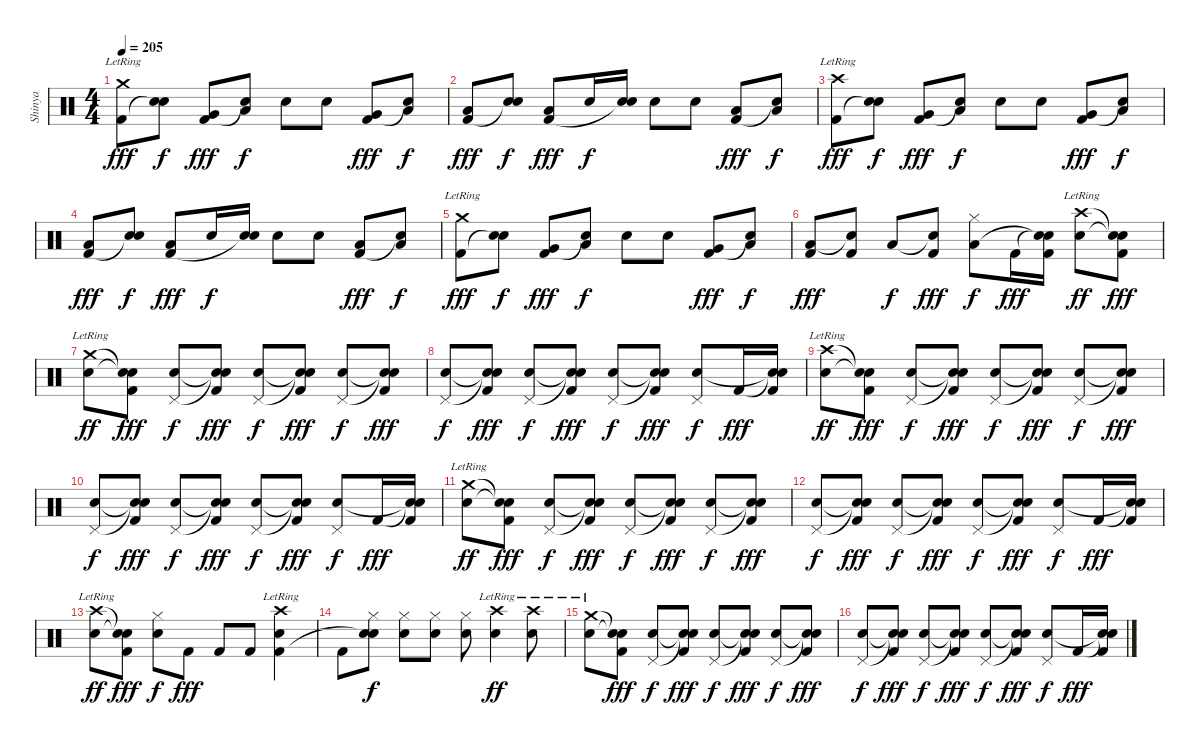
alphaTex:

\track ("Shinya" "Shinya") {instrument percussion}
\staff {score}
\articulation defaults
\ts (4 4)
\tempo 205
\clef neutral
\ks c
("Crash medium (hit)"{lr} "Kick (hit) 2").8{dy fff} ("Electric Snare (hit)" "Snare (hit)"{t}).8{dy f} ("Very Low Tom (hit)" "Kick (hit) 2").8{dy fff} ("Low Floor Tom (hit)" "Snare (hit)"{t}).8{dy f} "Electric Snare (hit)".8 "Electric Snare (hit)".8 ("Very Low Tom (hit)" "Kick (hit) 2").8{dy fff} ("Low Floor Tom (hit)" "Snare (hit)"{t}).8{dy f} |
("Low Floor Tom (hit)" "Kick (hit) 2").8{dy fff} ("Electric Snare (hit)" "Snare (hit)"{t}).8{dy f} ("Low Floor Tom (hit)" "Kick (hit) 2").8{dy fff} "Electric Snare (hit)".16{dy f} ("Electric Snare (hit)" "Snare (hit)"{t}).16 "Electric Snare (hit)".8 "Electric Snare (hit)".8 ("Low Floor Tom (hit)" "Kick (hit) 2").8{dy fff} ("Low Floor Tom (hit)" "Snare (hit)"{t}).8{dy f} |
("Crash high (hit)"{lr} "Kick (hit) 2").8{dy fff} ("Electric Snare (hit)" "Snare (hit)"{t}).8{dy f} ("Very Low Tom (hit)" "Kick (hit) 2").8{dy fff} ("Low Floor Tom (hit)" "Snare (hit)"{t}).8{dy f} "Electric Snare (hit)".8 "Electric Snare (hit)".8 ("Very Low Tom (hit)" "Kick (hit) 2").8{dy fff} ("Low Floor Tom (hit)" "Snare (hit)"{t}).8{dy f} |
("Low Floor Tom (hit)" "Kick (hit) 2").8{dy fff} ("Electric Snare (hit)" "Snare (hit)"{t}).8{dy f} ("Low Floor Tom (hit)" "Kick (hit) 2").8{dy fff} "Electric Snare (hit)".16{dy f} ("Electric Snare (hit)" "Snare (hit)"{t}).16 "Electric Snare (hit)".8 "Electric Snare (hit)".8 ("Low Floor Tom (hit)" "Kick (hit) 2").8{dy fff} ("Low Floor Tom (hit)" "Snare (hit)"{t}).8{dy f} |
("Crash medium (hit)"{lr} "Kick (hit) 2").8{dy fff} ("Electric Snare (hit)" "Snare (hit)"{t}).8{dy f} ("Very Low Tom (hit)" "Kick (hit) 2").8{dy fff} ("Low Floor Tom (hit)" "Snare (hit)"{t}).8{dy f} "Electric Snare (hit)".8 "Electric Snare (hit)".8 ("Very Low Tom (hit)" "Kick (hit) 2").8{dy fff} ("Low Floor Tom (hit)" "Snare (hit)"{t}).8{dy f} |
("Low Floor Tom (hit)" "Kick (hit) 2").8{dy fff} ("Snare (hit)"{t} "Kick (hit) 2").8 "Low Floor Tom (hit)".8{dy f} ("Snare (hit)"{t} "Kick (hit) 2").8{dy fff} ("Hi-Hat (closed)" "Low Floor Tom (hit)").8{dy f} "Kick (hit) 2".16{dy fff} ("Snare (hit)"{t} "Snare (hit)"{t} "Kick (hit) 2").16 ("Crash high (hit)"{lr} "Electric Snare (hit)").8{dy ff} ("Snare (hit)"{t} "Snare (hit)"{t} "Kick (hit) 2").8{dy fff} |
("Crash medium (hit)"{lr} "Electric Snare (hit)").8{dy ff} ("Snare (hit)"{t} "Snare (hit)"{t} "Kick (hit) 2").8{dy fff} ("Pedal Hi-Hat (hit)" "Electric Snare (hit)").8{dy f} ("Snare (hit)"{t} "Snare (hit)"{t} "Kick (hit) 2").8{dy fff} ("Pedal Hi-Hat (hit)" "Electric Snare (hit)").8{dy f} ("Snare (hit)"{t} "Snare (hit)"{t} "Kick (hit) 2").8{dy fff} ("Pedal Hi-Hat (hit)" "Electric Snare (hit)").8{dy f} ("Snare (hit)"{t} "Snare (hit)"{t} "Kick (hit) 2").8{dy fff} |
("Pedal Hi-Hat (hit)" "Electric Snare (hit)").8{dy f} ("Snare (hit)"{t} "Snare (hit)"{t} "Kick (hit) 2").8{dy fff} ("Pedal Hi-Hat (hit)" "Electric Snare (hit)").8{dy f} ("Snare (hit)"{t} "Snare (hit)"{t} "Kick (hit) 2").8{dy fff} ("Pedal Hi-Hat (hit)" "Electric Snare (hit)").8{dy f} ("Snare (hit)"{t} "Snare (hit)"{t} "Kick (hit) 2").8{dy fff} ("Pedal Hi-Hat (hit)" "Electric Snare (hit)").8{dy f} "Kick (hit) 2".16{dy fff} ("Snare (hit)"{t} "Snare (hit)"{t} "Kick (hit) 2").16 |
("Crash high (hit)"{lr} "Electric Snare (hit)").8{dy ff} ("Snare (hit)"{t} "Snare (hit)"{t} "Kick (hit) 2").8{dy fff} ("Pedal Hi-Hat (hit)" "Electric Snare (hit)").8{dy f} ("Snare (hit)"{t} "Snare (hit)"{t} "Kick (hit) 2").8{dy fff} ("Pedal Hi-Hat (hit)" "Electric Snare (hit)").8{dy f} ("Snare (hit)"{t} "Snare (hit)"{t} "Kick (hit) 2").8{dy fff} ("Pedal Hi-Hat (hit)" "Electric Snare (hit)").8{dy f} ("Snare (hit)"{t} "Snare (hit)"{t} "Kick (hit) 2").8{dy fff} |
("Pedal Hi-Hat (hit)" "Electric Snare (hit)").8{dy f} ("Snare (hit)"{t} "Snare (hit)"{t} "Kick (hit) 2").8{dy fff} ("Pedal Hi-Hat (hit)" "Electric Snare (hit)").8{dy f} ("Snare (hit)"{t} "Snare (hit)"{t} "Kick (hit) 2").8{dy fff} ("Pedal Hi-Hat (hit)" "Electric Snare (hit)").8{dy f} ("Snare (hit)"{t} "Snare (hit)"{t} "Kick (hit) 2").8{dy fff} ("Pedal Hi-Hat (hit)" "Electric Snare (hit)").8{dy f} "Kick (hit) 2".16{dy fff} ("Snare (hit)"{t} "Snare (hit)"{t} "Kick (hit) 2").16 |
("Crash medium (hit)"{lr} "Electric Snare (hit)").8{dy ff} ("Snare (hit)"{t} "Snare (hit)"{t} "Kick (hit) 2").8{dy fff} ("Pedal Hi-Hat (hit)" "Electric Snare (hit)").8{dy f} ("Snare (hit)"{t} "Snare (hit)"{t} "Kick (hit) 2").8{dy fff} ("Pedal Hi-Hat (hit)" "Electric Snare (hit)").8{dy f} ("Snare (hit)"{t} "Snare (hit)"{t} "Kick (hit) 2").8{dy fff} ("Pedal Hi-Hat (hit)" "Electric Snare (hit)").8{dy f} ("Snare (hit)"{t} "Snare (hit)"{t} "Kick (hit) 2").8{dy fff} |
("Pedal Hi-Hat (hit)" "Electric Snare (hit)").8{dy f} ("Snare (hit)"{t} "Snare (hit)"{t} "Kick (hit) 2").8{dy fff} ("Pedal Hi-Hat (hit)" "Electric Snare (hit)").8{dy f} ("Snare (hit)"{t} "Snare (hit)"{t} "Kick (hit) 2").8{dy fff} ("Pedal Hi-Hat (hit)" "Electric Snare (hit)").8{dy f} ("Snare (hit)"{t} "Snare (hit)"{t} "Kick (hit) 2").8{dy fff} ("Pedal Hi-Hat (hit)" "Electric Snare (hit)").8{dy f} "Kick (hit) 2".16{dy fff} ("Snare (hit)"{t} "Snare (hit)"{t} "Kick (hit) 2").16 |
("Crash high (hit)"{lr} "Electric Snare (hit)").8{dy ff} ("Snare (hit)"{t} "Snare (hit)"{t} "Kick (hit) 2").8{dy fff} ("Hi-Hat (closed)" "Electric Snare (hit)").8{dy f} "Kick (hit) 2".8{dy fff} "Kick (hit) 2".8 "Kick (hit) 2".8 ("Crash high (hit)"{lr} "Electric Snare (hit)" "Kick (hit) 2").4 |
"Kick (hit) 2".8 ("Hi-Hat (closed)" "Electric Snare (hit)" "Snare (hit)"{t}).8{dy f} ("Hi-Hat (closed)" "Electric Snare (hit)").8 ("Hi-Hat (closed)" "Electric Snare (hit)").8 ("Hi-Hat (closed)" "Electric Snare (hit)").8 ("Crash high (hit)"{lr} "Electric Snare (hit)").4{dy ff} ("Crash high (hit)"{lr} "Electric Snare (hit)").8 |
("Crash medium (hit)"{lr} "Electric Snare (hit)").8 ("Snare (hit)"{t} "Snare (hit)"{t} "Kick (hit) 2").8{dy fff} ("Pedal Hi-Hat (hit)" "Electric Snare (hit)").8{dy f} ("Snare (hit)"{t} "Snare (hit)"{t} "Kick (hit) 2").8{dy fff} ("Pedal Hi-Hat (hit)" "Electric Snare (hit)").8{dy f} ("Snare (hit)"{t} "Snare (hit)"{t} "Kick (hit) 2").8{dy fff} ("Pedal Hi-Hat (hit)" "Electric Snare (hit)").8{dy f} ("Snare (hit)"{t} "Snare (hit)"{t} "Kick (hit) 2").8{dy fff} |
("Pedal Hi-Hat (hit)" "Electric Snare (hit)").8{dy f} ("Snare (hit)"{t} "Snare (hit)"{t} "Kick (hit) 2").8{dy fff} ("Pedal Hi-Hat (hit)" "Electric Snare (hit)").8{dy f} ("Snare (hit)"{t} "Snare (hit)"{t} "Kick (hit) 2").8{dy fff} ("Pedal Hi-Hat (hit)" "Electric Snare (hit)").8{dy f} ("Snare (hit)"{t} "Snare (hit)"{t} "Kick (hit) 2").8{dy fff} ("Pedal Hi-Hat (hit)" "Electric Snare (hit)").8{dy f} "Kick (hit) 2".16{dy fff} ("Snare (hit)"{t} "Snare (hit)"{t} "Kick (hit) 2").16
